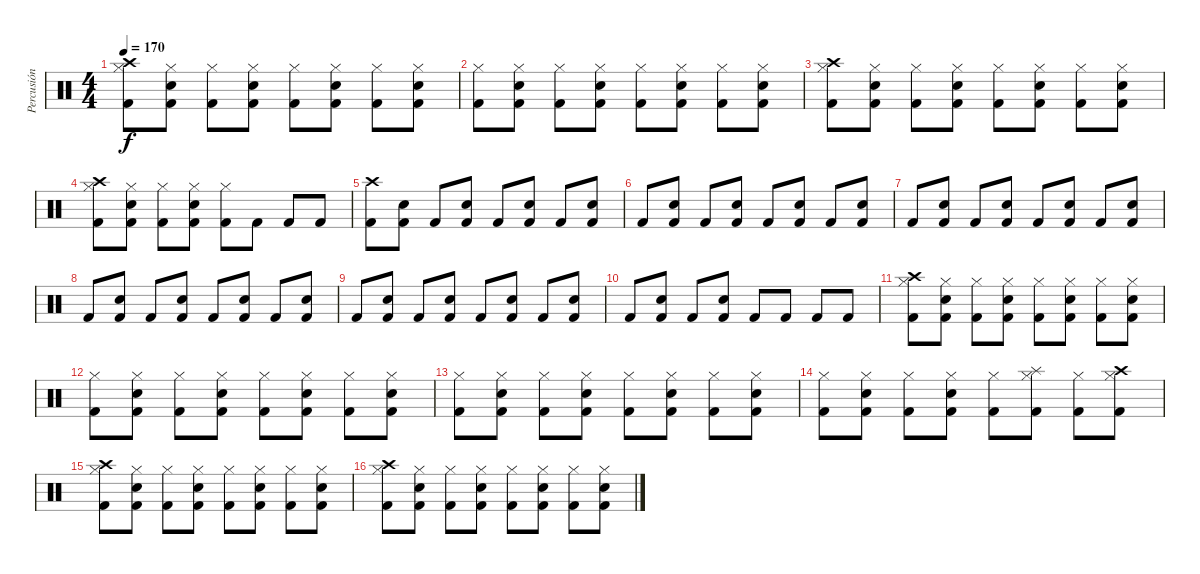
\track ("Percusión" "Percusión") {instrument percussion}
\staff {score}
\articulation defaults
\ts (4 4)
\tempo 170
\clef neutral
\ks c
("Hi-Hat (closed)" "Crash high (hit)" "Kick (hit) 2").8{dy f} ("Hi-Hat (closed)" "Snare (hit) 2" "Kick (hit) 2").8 ("Hi-Hat (closed)" "Kick (hit) 2").8 ("Hi-Hat (closed)" "Snare (hit) 2" "Kick (hit) 2").8 ("Hi-Hat (closed)" "Kick (hit) 2").8 ("Hi-Hat (closed)" "Snare (hit) 2" "Kick (hit) 2").8 ("Hi-Hat (closed)" "Kick (hit) 2").8 ("Hi-Hat (closed)" "Snare (hit) 2" "Kick (hit) 2").8 |
("Hi-Hat (closed)" "Kick (hit) 2").8 ("Hi-Hat (closed)" "Snare (hit) 2" "Kick (hit) 2").8 ("Hi-Hat (closed)" "Kick (hit) 2").8 ("Hi-Hat (closed)" "Snare (hit) 2" "Kick (hit) 2").8 ("Hi-Hat (closed)" "Kick (hit) 2").8 ("Hi-Hat (closed)" "Snare (hit) 2" "Kick (hit) 2").8 ("Hi-Hat (closed)" "Kick (hit) 2").8 ("Hi-Hat (closed)" "Snare (hit) 2" "Kick (hit) 2").8 |
("Hi-Hat (closed)" "Crash high (hit)" "Kick (hit) 2").8 ("Hi-Hat (closed)" "Snare (hit) 2" "Kick (hit) 2").8 ("Hi-Hat (closed)" "Kick (hit) 2").8 ("Hi-Hat (closed)" "Snare (hit) 2" "Kick (hit) 2").8 ("Hi-Hat (closed)" "Kick (hit) 2").8 ("Hi-Hat (closed)" "Snare (hit) 2" "Kick (hit) 2").8 ("Hi-Hat (closed)" "Kick (hit) 2").8 ("Hi-Hat (closed)" "Snare (hit) 2" "Kick (hit) 2").8 |
("Hi-Hat (closed)" "Crash high (hit)" "Kick (hit) 2").8 ("Hi-Hat (closed)" "Snare (hit) 2" "Kick (hit) 2").8 ("Hi-Hat (closed)" "Kick (hit) 2").8 ("Hi-Hat (closed)" "Snare (hit) 2" "Kick (hit) 2").8 ("Hi-Hat (closed)" "Kick (hit) 2").8 "Kick (hit) 2".8 "Kick (hit) 2".8 "Kick (hit) 2".8 |
("Crash high (hit)" "Kick (hit) 2").8 ("Snare (hit) 2" "Kick (hit) 2").8 "Kick (hit) 2".8 ("Snare (hit) 2" "Kick (hit) 2").8 "Kick (hit) 2".8 ("Snare (hit) 2" "Kick (hit) 2").8 "Kick (hit) 2".8 ("Snare (hit) 2" "Kick (hit) 2").8 |
"Kick (hit) 2".8 ("Snare (hit) 2" "Kick (hit) 2").8 "Kick (hit) 2".8 ("Snare (hit) 2" "Kick (hit) 2").8 "Kick (hit) 2".8 ("Snare (hit) 2" "Kick (hit) 2").8 "Kick (hit) 2".8 ("Snare (hit) 2" "Kick (hit) 2").8 |
"Kick (hit) 2".8 ("Snare (hit) 2" "Kick (hit) 2").8 "Kick (hit) 2".8 ("Snare (hit) 2" "Kick (hit) 2").8 "Kick (hit) 2".8 ("Snare (hit) 2" "Kick (hit) 2").8 "Kick (hit) 2".8 ("Snare (hit) 2" "Kick (hit) 2").8 |
"Kick (hit) 2".8 ("Snare (hit) 2" "Kick (hit) 2").8 "Kick (hit) 2".8 ("Snare (hit) 2" "Kick (hit) 2").8 "Kick (hit) 2".8 ("Snare (hit) 2" "Kick (hit) 2").8 "Kick (hit) 2".8 ("Snare (hit) 2" "Kick (hit) 2").8 |
"Kick (hit) 2".8 ("Snare (hit) 2" "Kick (hit) 2").8 "Kick (hit) 2".8 ("Snare (hit) 2" "Kick (hit) 2").8 "Kick (hit) 2".8 ("Snare (hit) 2" "Kick (hit) 2").8 "Kick (hit) 2".8 ("Snare (hit) 2" "Kick (hit) 2").8 |
"Kick (hit) 2".8 ("Snare (hit) 2" "Kick (hit) 2").8 "Kick (hit) 2".8 ("Snare (hit) 2" "Kick (hit) 2").8 "Kick (hit) 2".8 "Kick (hit) 2".8 "Kick (hit) 2".8 "Kick (hit) 2".8 |
("Hi-Hat (closed)" "Crash high (hit)" "Kick (hit) 2").8 ("Hi-Hat (closed)" "Snare (hit) 2" "Kick (hit) 2").8 ("Hi-Hat (closed)" "Kick (hit) 2").8 ("Hi-Hat (closed)" "Snare (hit) 2" "Kick (hit) 2").8 ("Hi-Hat (closed)" "Kick (hit) 2").8 ("Hi-Hat (closed)" "Snare (hit) 2" "Kick (hit) 2").8 ("Hi-Hat (closed)" "Kick (hit) 2").8 ("Hi-Hat (closed)" "Snare (hit) 2" "Kick (hit) 2").8 |
("Hi-Hat (closed)" "Kick (hit) 2").8 ("Hi-Hat (closed)" "Snare (hit) 2" "Kick (hit) 2").8 ("Hi-Hat (closed)" "Kick (hit) 2").8 ("Hi-Hat (closed)" "Snare (hit) 2" "Kick (hit) 2").8 ("Hi-Hat (closed)" "Kick (hit) 2").8 ("Hi-Hat (closed)" "Snare (hit) 2" "Kick (hit) 2").8 ("Hi-Hat (closed)" "Kick (hit) 2").8 ("Hi-Hat (closed)" "Snare (hit) 2" "Kick (hit) 2").8 |
("Hi-Hat (closed)" "Kick (hit) 2").8 ("Hi-Hat (closed)" "Snare (hit) 2" "Kick (hit) 2").8 ("Hi-Hat (closed)" "Kick (hit) 2").8 ("Hi-Hat (closed)" "Snare (hit) 2" "Kick (hit) 2").8 ("Hi-Hat (closed)" "Kick (hit) 2").8 ("Hi-Hat (closed)" "Snare (hit) 2" "Kick (hit) 2").8 ("Hi-Hat (closed)" "Kick (hit) 2").8 ("Hi-Hat (closed)" "Snare (hit) 2" "Kick (hit) 2").8 |
("Hi-Hat (closed)" "Kick (hit) 2").8 ("Hi-Hat (closed)" "Snare (hit) 2" "Kick (hit) 2").8 ("Hi-Hat (closed)" "Kick (hit) 2").8 ("Hi-Hat (closed)" "Snare (hit) 2" "Kick (hit) 2").8 ("Hi-Hat (closed)" "Kick (hit) 2").8 ("Hi-Hat (closed)" "Splash (hit)" "Kick (hit) 2").8 ("Hi-Hat (closed)" "Kick (hit) 2").8 ("Hi-Hat (closed)" "Crash high (hit)" "Kick (hit) 2").8 |
("Hi-Hat (closed)" "Crash high (hit)" "Kick (hit) 2").8 ("Hi-Hat (closed)" "Snare (hit) 2" "Kick (hit) 2").8 ("Hi-Hat (closed)" "Kick (hit) 2").8 ("Hi-Hat (closed)" "Snare (hit) 2" "Kick (hit) 2").8 ("Hi-Hat (closed)" "Kick (hit) 2").8 ("Hi-Hat (closed)" "Snare (hit) 2" "Kick (hit) 2").8 ("Hi-Hat (closed)" "Kick (hit) 2").8 ("Hi-Hat (closed)" "Snare (hit) 2" "Kick (hit) 2").8 |
("Hi-Hat (closed)" "Crash high (hit)" "Kick (hit) 2").8 ("Hi-Hat (closed)" "Snare (hit) 2" "Kick (hit) 2").8 ("Hi-Hat (closed)" "Kick (hit) 2").8 ("Hi-Hat (closed)" "Snare (hit) 2" "Kick (hit) 2").8 ("Hi-Hat (closed)" "Kick (hit) 2").8 ("Hi-Hat (closed)" "Snare (hit) 2" "Kick (hit) 2").8 ("Hi-Hat (closed)" "Kick (hit) 2").8 ("Hi-Hat (closed)" "Snare (hit) 2" "Kick (hit) 2").8
